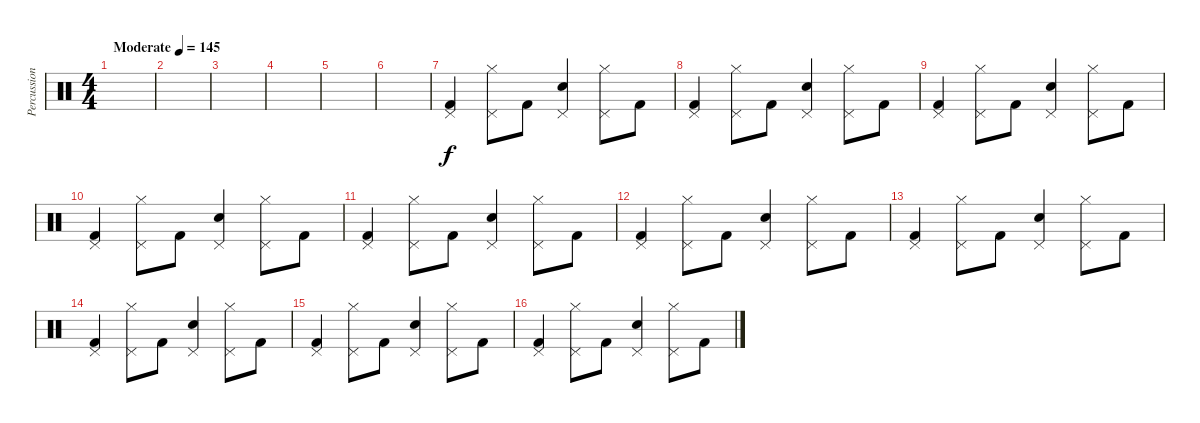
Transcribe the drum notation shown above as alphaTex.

\track ("Percussion" "Percussion") {instrument percussion}
\staff {score}
\articulation defaults
\ts (4 4)
\tempo (145 "Moderate")
\clef neutral
\ks c
|
|
|
|
|
|
("Kick (hit) 2" "Pedal Hi-Hat (hit)").4 ("Hi-Hat (closed)" "Pedal Hi-Hat (hit)").8 "Kick (hit) 2".8 ("Snare (hit) 2" "Pedal Hi-Hat (hit)").4 ("Hi-Hat (closed)" "Pedal Hi-Hat (hit)").8 "Kick (hit) 2".8 |
("Kick (hit) 2" "Pedal Hi-Hat (hit)").4 ("Hi-Hat (closed)" "Pedal Hi-Hat (hit)").8 "Kick (hit) 2".8 ("Snare (hit) 2" "Pedal Hi-Hat (hit)").4 ("Hi-Hat (closed)" "Pedal Hi-Hat (hit)").8 "Kick (hit) 2".8 |
("Kick (hit) 2" "Pedal Hi-Hat (hit)").4 ("Hi-Hat (closed)" "Pedal Hi-Hat (hit)").8 "Kick (hit) 2".8 ("Snare (hit) 2" "Pedal Hi-Hat (hit)").4 ("Hi-Hat (closed)" "Pedal Hi-Hat (hit)").8 "Kick (hit) 2".8 |
("Kick (hit) 2" "Pedal Hi-Hat (hit)").4 ("Hi-Hat (closed)" "Pedal Hi-Hat (hit)").8 "Kick (hit) 2".8 ("Snare (hit) 2" "Pedal Hi-Hat (hit)").4 ("Hi-Hat (closed)" "Pedal Hi-Hat (hit)").8 "Kick (hit) 2".8 |
("Kick (hit) 2" "Pedal Hi-Hat (hit)").4 ("Hi-Hat (closed)" "Pedal Hi-Hat (hit)").8 "Kick (hit) 2".8 ("Snare (hit) 2" "Pedal Hi-Hat (hit)").4 ("Hi-Hat (closed)" "Pedal Hi-Hat (hit)").8 "Kick (hit) 2".8 |
("Kick (hit) 2" "Pedal Hi-Hat (hit)").4 ("Hi-Hat (closed)" "Pedal Hi-Hat (hit)").8 "Kick (hit) 2".8 ("Snare (hit) 2" "Pedal Hi-Hat (hit)").4 ("Hi-Hat (closed)" "Pedal Hi-Hat (hit)").8 "Kick (hit) 2".8 |
("Kick (hit) 2" "Pedal Hi-Hat (hit)").4 ("Hi-Hat (closed)" "Pedal Hi-Hat (hit)").8 "Kick (hit) 2".8 ("Snare (hit) 2" "Pedal Hi-Hat (hit)").4 ("Hi-Hat (closed)" "Pedal Hi-Hat (hit)").8 "Kick (hit) 2".8 |
("Kick (hit) 2" "Pedal Hi-Hat (hit)").4 ("Hi-Hat (closed)" "Pedal Hi-Hat (hit)").8 "Kick (hit) 2".8 ("Snare (hit) 2" "Pedal Hi-Hat (hit)").4 ("Hi-Hat (closed)" "Pedal Hi-Hat (hit)").8 "Kick (hit) 2".8 |
("Kick (hit) 2" "Pedal Hi-Hat (hit)").4 ("Hi-Hat (closed)" "Pedal Hi-Hat (hit)").8 "Kick (hit) 2".8 ("Snare (hit) 2" "Pedal Hi-Hat (hit)").4 ("Hi-Hat (closed)" "Pedal Hi-Hat (hit)").8 "Kick (hit) 2".8 |
("Kick (hit) 2" "Pedal Hi-Hat (hit)").4 ("Hi-Hat (closed)" "Pedal Hi-Hat (hit)").8 "Kick (hit) 2".8 ("Snare (hit) 2" "Pedal Hi-Hat (hit)").4 ("Hi-Hat (closed)" "Pedal Hi-Hat (hit)").8 "Kick (hit) 2".8
